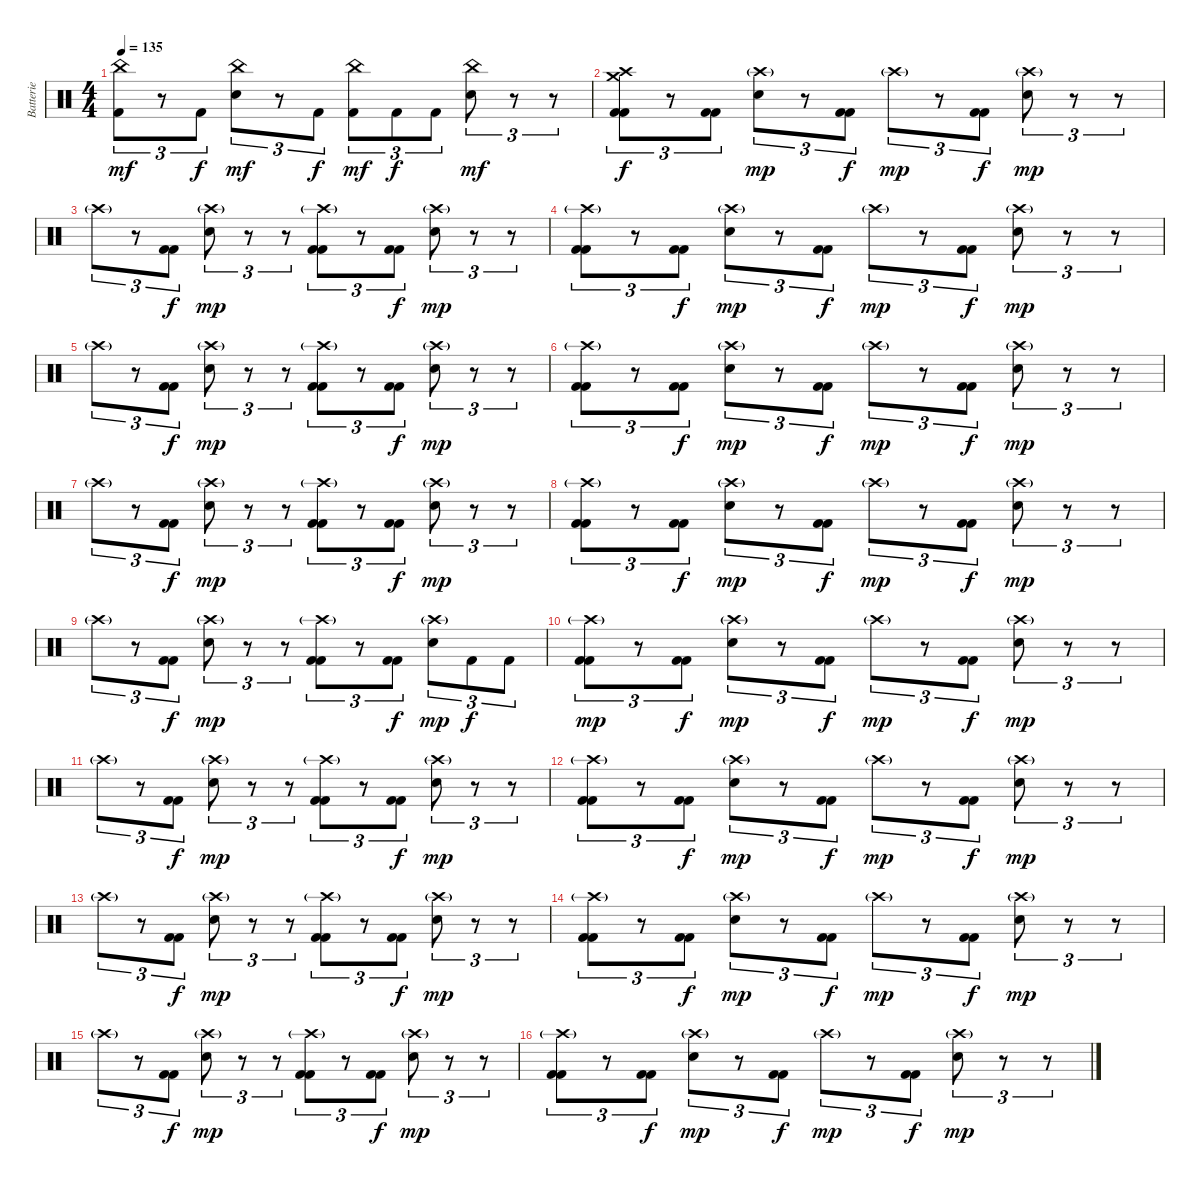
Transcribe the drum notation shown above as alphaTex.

\track ("Batterie" "Batterie") {instrument percussion}
\staff {score}
\articulation defaults
\ts (4 4)
\tempo 135
\clef neutral
\ks c
("China (hit)" "Kick (hit) 2").8{tu (3 2) dy mf} r.8{tu (3 2)} "Kick (hit) 2".8{tu (3 2) dy f} ("China (hit)" "Electric Snare (hit)").8{tu (3 2) dy mf} r.8{tu (3 2)} "Kick (hit) 2".8{tu (3 2) dy f} ("China (hit)" "Kick (hit) 2").8{tu (3 2) dy mf} "Kick (hit) 2".8{tu (3 2) dy f} "Kick (hit) 2".8{tu (3 2)} ("China (hit)" "Electric Snare (hit)").8{tu (3 2) dy mf} r.8{tu (3 2)} r.8{tu (3 2)} |
("Crash high (hit)" "Crash medium (hit)" "Kick (hit) 2" "Kick (hit) 2").8{tu (3 2) dy f} r.8{tu (3 2)} ("Kick (hit) 2" "Kick (hit) 2").8{tu (3 2)} ("Crash high (hit)"{g} "Electric Snare (hit)").8{tu (3 2) dy mp} r.8{tu (3 2)} ("Kick (hit) 2" "Kick (hit) 2").8{tu (3 2) dy f} "Crash high (hit)"{g}.8{tu (3 2) dy mp} r.8{tu (3 2)} ("Kick (hit) 2" "Kick (hit) 2").8{tu (3 2) dy f} ("Crash high (hit)"{g} "Electric Snare (hit)").8{tu (3 2) dy mp} r.8{tu (3 2)} r.8{tu (3 2)} |
"Crash high (hit)"{g}.8{tu (3 2)} r.8{tu (3 2)} ("Kick (hit) 2" "Kick (hit) 2").8{tu (3 2) dy f} ("Crash high (hit)"{g} "Electric Snare (hit)").8{tu (3 2) dy mp} r.8{tu (3 2)} r.8{tu (3 2)} ("Crash high (hit)"{g} "Kick (hit) 2" "Kick (hit) 2").8{tu (3 2)} r.8{tu (3 2)} ("Kick (hit) 2" "Kick (hit) 2").8{tu (3 2) dy f} ("Crash high (hit)"{g} "Electric Snare (hit)").8{tu (3 2) dy mp} r.8{tu (3 2)} r.8{tu (3 2)} |
("Crash high (hit)"{g} "Kick (hit) 2" "Kick (hit) 2").8{tu (3 2)} r.8{tu (3 2)} ("Kick (hit) 2" "Kick (hit) 2").8{tu (3 2) dy f} ("Crash high (hit)"{g} "Electric Snare (hit)").8{tu (3 2) dy mp} r.8{tu (3 2)} ("Kick (hit) 2" "Kick (hit) 2").8{tu (3 2) dy f} "Crash high (hit)"{g}.8{tu (3 2) dy mp} r.8{tu (3 2)} ("Kick (hit) 2" "Kick (hit) 2").8{tu (3 2) dy f} ("Crash high (hit)"{g} "Electric Snare (hit)").8{tu (3 2) dy mp} r.8{tu (3 2)} r.8{tu (3 2)} |
"Crash high (hit)"{g}.8{tu (3 2)} r.8{tu (3 2)} ("Kick (hit) 2" "Kick (hit) 2").8{tu (3 2) dy f} ("Crash high (hit)"{g} "Electric Snare (hit)").8{tu (3 2) dy mp} r.8{tu (3 2)} r.8{tu (3 2)} ("Crash high (hit)"{g} "Kick (hit) 2" "Kick (hit) 2").8{tu (3 2)} r.8{tu (3 2)} ("Kick (hit) 2" "Kick (hit) 2").8{tu (3 2) dy f} ("Crash high (hit)"{g} "Electric Snare (hit)").8{tu (3 2) dy mp} r.8{tu (3 2)} r.8{tu (3 2)} |
("Crash high (hit)"{g} "Kick (hit) 2" "Kick (hit) 2").8{tu (3 2)} r.8{tu (3 2)} ("Kick (hit) 2" "Kick (hit) 2").8{tu (3 2) dy f} ("Crash high (hit)"{g} "Electric Snare (hit)").8{tu (3 2) dy mp} r.8{tu (3 2)} ("Kick (hit) 2" "Kick (hit) 2").8{tu (3 2) dy f} "Crash high (hit)"{g}.8{tu (3 2) dy mp} r.8{tu (3 2)} ("Kick (hit) 2" "Kick (hit) 2").8{tu (3 2) dy f} ("Crash high (hit)"{g} "Electric Snare (hit)").8{tu (3 2) dy mp} r.8{tu (3 2)} r.8{tu (3 2)} |
"Crash high (hit)"{g}.8{tu (3 2)} r.8{tu (3 2)} ("Kick (hit) 2" "Kick (hit) 2").8{tu (3 2) dy f} ("Crash high (hit)"{g} "Electric Snare (hit)").8{tu (3 2) dy mp} r.8{tu (3 2)} r.8{tu (3 2)} ("Crash high (hit)"{g} "Kick (hit) 2" "Kick (hit) 2").8{tu (3 2)} r.8{tu (3 2)} ("Kick (hit) 2" "Kick (hit) 2").8{tu (3 2) dy f} ("Crash high (hit)"{g} "Electric Snare (hit)").8{tu (3 2) dy mp} r.8{tu (3 2)} r.8{tu (3 2)} |
("Crash high (hit)"{g} "Kick (hit) 2" "Kick (hit) 2").8{tu (3 2)} r.8{tu (3 2)} ("Kick (hit) 2" "Kick (hit) 2").8{tu (3 2) dy f} ("Crash high (hit)"{g} "Electric Snare (hit)").8{tu (3 2) dy mp} r.8{tu (3 2)} ("Kick (hit) 2" "Kick (hit) 2").8{tu (3 2) dy f} "Crash high (hit)"{g}.8{tu (3 2) dy mp} r.8{tu (3 2)} ("Kick (hit) 2" "Kick (hit) 2").8{tu (3 2) dy f} ("Crash high (hit)"{g} "Electric Snare (hit)").8{tu (3 2) dy mp} r.8{tu (3 2)} r.8{tu (3 2)} |
"Crash high (hit)"{g}.8{tu (3 2)} r.8{tu (3 2)} ("Kick (hit) 2" "Kick (hit) 2").8{tu (3 2) dy f} ("Crash high (hit)"{g} "Electric Snare (hit)").8{tu (3 2) dy mp} r.8{tu (3 2)} r.8{tu (3 2)} ("Crash high (hit)"{g} "Kick (hit) 2" "Kick (hit) 2").8{tu (3 2)} r.8{tu (3 2)} ("Kick (hit) 2" "Kick (hit) 2").8{tu (3 2) dy f} ("Crash high (hit)"{g} "Electric Snare (hit)").8{tu (3 2) dy mp} "Kick (hit) 2".8{tu (3 2) dy f} "Kick (hit) 2".8{tu (3 2)} |
("Crash high (hit)"{g} "Kick (hit) 2" "Kick (hit) 2").8{tu (3 2) dy mp} r.8{tu (3 2)} ("Kick (hit) 2" "Kick (hit) 2").8{tu (3 2) dy f} ("Crash high (hit)"{g} "Electric Snare (hit)").8{tu (3 2) dy mp} r.8{tu (3 2)} ("Kick (hit) 2" "Kick (hit) 2").8{tu (3 2) dy f} "Crash high (hit)"{g}.8{tu (3 2) dy mp} r.8{tu (3 2)} ("Kick (hit) 2" "Kick (hit) 2").8{tu (3 2) dy f} ("Crash high (hit)"{g} "Electric Snare (hit)").8{tu (3 2) dy mp} r.8{tu (3 2)} r.8{tu (3 2)} |
"Crash high (hit)"{g}.8{tu (3 2)} r.8{tu (3 2)} ("Kick (hit) 2" "Kick (hit) 2").8{tu (3 2) dy f} ("Crash high (hit)"{g} "Electric Snare (hit)").8{tu (3 2) dy mp} r.8{tu (3 2)} r.8{tu (3 2)} ("Crash high (hit)"{g} "Kick (hit) 2" "Kick (hit) 2").8{tu (3 2)} r.8{tu (3 2)} ("Kick (hit) 2" "Kick (hit) 2").8{tu (3 2) dy f} ("Crash high (hit)"{g} "Electric Snare (hit)").8{tu (3 2) dy mp} r.8{tu (3 2)} r.8{tu (3 2)} |
("Crash high (hit)"{g} "Kick (hit) 2" "Kick (hit) 2").8{tu (3 2)} r.8{tu (3 2)} ("Kick (hit) 2" "Kick (hit) 2").8{tu (3 2) dy f} ("Crash high (hit)"{g} "Electric Snare (hit)").8{tu (3 2) dy mp} r.8{tu (3 2)} ("Kick (hit) 2" "Kick (hit) 2").8{tu (3 2) dy f} "Crash high (hit)"{g}.8{tu (3 2) dy mp} r.8{tu (3 2)} ("Kick (hit) 2" "Kick (hit) 2").8{tu (3 2) dy f} ("Crash high (hit)"{g} "Electric Snare (hit)").8{tu (3 2) dy mp} r.8{tu (3 2)} r.8{tu (3 2)} |
"Crash high (hit)"{g}.8{tu (3 2)} r.8{tu (3 2)} ("Kick (hit) 2" "Kick (hit) 2").8{tu (3 2) dy f} ("Crash high (hit)"{g} "Electric Snare (hit)").8{tu (3 2) dy mp} r.8{tu (3 2)} r.8{tu (3 2)} ("Crash high (hit)"{g} "Kick (hit) 2" "Kick (hit) 2").8{tu (3 2)} r.8{tu (3 2)} ("Kick (hit) 2" "Kick (hit) 2").8{tu (3 2) dy f} ("Crash high (hit)"{g} "Electric Snare (hit)").8{tu (3 2) dy mp} r.8{tu (3 2)} r.8{tu (3 2)} |
("Crash high (hit)"{g} "Kick (hit) 2" "Kick (hit) 2").8{tu (3 2)} r.8{tu (3 2)} ("Kick (hit) 2" "Kick (hit) 2").8{tu (3 2) dy f} ("Crash high (hit)"{g} "Electric Snare (hit)").8{tu (3 2) dy mp} r.8{tu (3 2)} ("Kick (hit) 2" "Kick (hit) 2").8{tu (3 2) dy f} "Crash high (hit)"{g}.8{tu (3 2) dy mp} r.8{tu (3 2)} ("Kick (hit) 2" "Kick (hit) 2").8{tu (3 2) dy f} ("Crash high (hit)"{g} "Electric Snare (hit)").8{tu (3 2) dy mp} r.8{tu (3 2)} r.8{tu (3 2)} |
"Crash high (hit)"{g}.8{tu (3 2)} r.8{tu (3 2)} ("Kick (hit) 2" "Kick (hit) 2").8{tu (3 2) dy f} ("Crash high (hit)"{g} "Electric Snare (hit)").8{tu (3 2) dy mp} r.8{tu (3 2)} r.8{tu (3 2)} ("Crash high (hit)"{g} "Kick (hit) 2" "Kick (hit) 2").8{tu (3 2)} r.8{tu (3 2)} ("Kick (hit) 2" "Kick (hit) 2").8{tu (3 2) dy f} ("Crash high (hit)"{g} "Electric Snare (hit)").8{tu (3 2) dy mp} r.8{tu (3 2)} r.8{tu (3 2)} |
("Crash high (hit)"{g} "Kick (hit) 2" "Kick (hit) 2").8{tu (3 2)} r.8{tu (3 2)} ("Kick (hit) 2" "Kick (hit) 2").8{tu (3 2) dy f} ("Crash high (hit)"{g} "Electric Snare (hit)").8{tu (3 2) dy mp} r.8{tu (3 2)} ("Kick (hit) 2" "Kick (hit) 2").8{tu (3 2) dy f} "Crash high (hit)"{g}.8{tu (3 2) dy mp} r.8{tu (3 2)} ("Kick (hit) 2" "Kick (hit) 2").8{tu (3 2) dy f} ("Crash high (hit)"{g} "Electric Snare (hit)").8{tu (3 2) dy mp} r.8{tu (3 2)} r.8{tu (3 2)}
